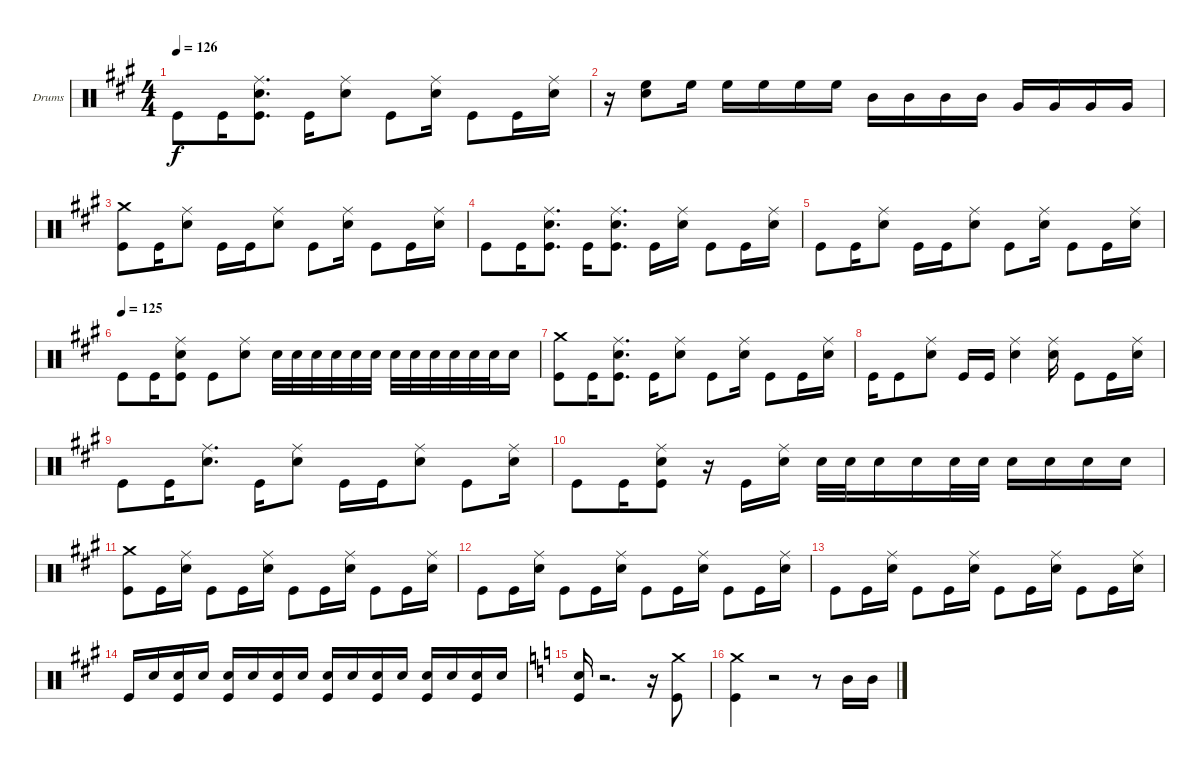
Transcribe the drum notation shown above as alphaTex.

\bracketExtendMode groupsimilarinstruments
\firstSystemTrackNameOrientation horizontal
\otherSystemsTrackNameOrientation horizontal
\track ("Vinny Appice" "Drums") {instrument percussion}
\staff {score}
\articulation defaults
\ts (4 4)
\tempo 126
\clef neutral
\ks f#minor "Kick (hit)".8{dy f} "Kick (hit)".16
("Kick (hit)" "Snare (hit) 2" "Ride (middle)").8{d} "Kick (hit)".16 ("Ride (middle)" "Snare (hit) 2").8 "Kick (hit)".8 ("Ride (middle)" "Snare (hit) 2").16 "Kick (hit)".8 "Kick (hit)".16 ("Snare (hit) 2" "Ride (middle)").16 |
r.16 ("High Floor Tom (hit)" "Snare (hit) 2").8 "High Floor Tom (hit)".16 "High Floor Tom (hit)".16 "High Floor Tom (hit)".16 "High Floor Tom (hit)".16 "High Floor Tom (hit)".16 "Mid Tom (hit)".16 "Mid Tom (hit)".16 "Mid Tom (hit)".16 "Mid Tom (hit)".16 "Very Low Tom (hit)".16 "Very Low Tom (hit)".16 "Very Low Tom (hit)".16 "Very Low Tom (hit)".16 |
("Crash medium (hit)" "Kick (hit)").8 "Kick (hit)".16 ("Ride (middle)" "Snare (hit) 2").8 "Kick (hit)".16 "Kick (hit)".16 ("Ride (middle)" "Snare (hit) 2").8 "Kick (hit)".8 ("Ride (middle)" "Snare (hit) 2").16 "Kick (hit)".8 "Kick (hit)".16 ("Ride (middle)" "Snare (hit) 2").16 |
"Kick (hit)".8 "Kick (hit)".16 ("Kick (hit)" "Snare (hit) 2" "Ride (middle)").8{d} "Kick (hit)".16 ("Snare (hit) 2" "Ride (middle)" "Kick (hit)").8{d} "Kick (hit)".16 ("Snare (hit) 2" "Ride (middle)").16 "Kick (hit)".8 "Kick (hit)".16 ("Ride (middle)" "Snare (hit) 2").16 |
"Kick (hit)".8 "Kick (hit)".16 ("Ride (middle)" "Snare (hit) 2").8 "Kick (hit)".16 "Kick (hit)".16 ("Ride (middle)" "Snare (hit) 2").8 "Kick (hit)".8 ("Ride (middle)" "Snare (hit) 2").16 "Kick (hit)".8 "Kick (hit)".16 ("Ride (middle)" "Snare (hit) 2").16 |
\tempo (125)
"Kick (hit)".8 "Kick (hit)".16 ("Ride (middle)" "Snare (hit) 2" "Kick (hit)").8 "Kick (hit)".8 ("Snare (hit) 2" "Ride (middle)").8 "Snare (hit) 2".32 "Snare (hit) 2".32 "Snare (hit) 2".32 "Snare (hit) 2".32 "Snare (hit) 2".32 "Snare (hit) 2".32 "Snare (hit) 2".32 "Snare (hit) 2".32 "Snare (hit) 2".32 "Snare (hit) 2".32 "Snare (hit) 2".32 "Snare (hit) 2".32 "Snare (hit) 2".16 |
("Crash medium (hit)" "Kick (hit)").8 "Kick (hit)".16 ("Kick (hit)" "Snare (hit) 2" "Ride (middle)").8{d} "Kick (hit)".16 ("Ride (middle)" "Snare (hit) 2").8 "Kick (hit)".8 ("Ride (middle)" "Snare (hit) 2").16 "Kick (hit)".8 "Kick (hit)".16 ("Ride (middle)" "Snare (hit) 2").16 |
"Kick (hit)".16 "Kick (hit)".8 ("Ride (middle)" "Snare (hit) 2").8 "Kick (hit)".16 "Kick (hit)".16 ("Snare (hit) 2" "Ride (middle)").4 ("Snare (hit) 2" "Ride (middle)").16 "Kick (hit)".8 "Kick (hit)".16 ("Ride (middle)" "Snare (hit) 2").16 |
"Kick (hit)".8 "Kick (hit)".16 ("Snare (hit) 2" "Ride (middle)").8{d} "Kick (hit)".16 ("Ride (middle)" "Snare (hit) 2").8 "Kick (hit)".16 "Kick (hit)".16 ("Ride (middle)" "Snare (hit) 2").8 "Kick (hit)".8 ("Ride (middle)" "Snare (hit) 2").16 |
"Kick (hit)".8 "Kick (hit)".16 ("Ride (middle)" "Snare (hit) 2" "Kick (hit)").8 r.16 "Kick (hit)".16 ("Snare (hit) 2" "Ride (middle)").16 "Snare (hit) 2".32 "Snare (hit) 2".32 "Snare (hit) 2".16 "Snare (hit) 2".16 "Snare (hit) 2".32 "Snare (hit) 2".32 "Snare (hit) 2".16 "Snare (hit) 2".16 "Snare (hit) 2".16 "Snare (hit) 2".16 |
("Crash medium (hit)" "Kick (hit)").8 "Kick (hit)".16 ("Snare (hit) 2" "Ride (middle)").16 "Kick (hit)".8 "Kick (hit)".16 ("Snare (hit) 2" "Ride (middle)").16 "Kick (hit)".8 "Kick (hit)".16 ("Ride (middle)" "Snare (hit) 2").16 "Kick (hit)".8 "Kick (hit)".16 ("Ride (middle)" "Snare (hit) 2").16 |
"Kick (hit)".8 "Kick (hit)".16 ("Snare (hit) 2" "Ride (middle)").16 "Kick (hit)".8 "Kick (hit)".16 ("Snare (hit) 2" "Ride (middle)").16 "Kick (hit)".8 "Kick (hit)".16 ("Snare (hit) 2" "Ride (middle)").16 "Kick (hit)".8 "Kick (hit)".16 ("Ride (middle)" "Snare (hit) 2").16 |
"Kick (hit)".8 "Kick (hit)".16 ("Snare (hit) 2" "Ride (middle)").16 "Kick (hit)".8 "Kick (hit)".16 ("Ride (middle)" "Snare (hit) 2").16 "Kick (hit)".8 "Kick (hit)".16 ("Ride (middle)" "Snare (hit) 2").16 "Kick (hit)".8 "Kick (hit)".16 ("Ride (middle)" "Snare (hit) 2").16 |
"Kick (hit)".16 "Snare (hit) 2".16 ("Snare (hit) 2" "Kick (hit)").16 "Snare (hit) 2".16 ("Snare (hit) 2" "Kick (hit)").16 "Snare (hit) 2".16 ("Snare (hit) 2" "Kick (hit)").16 "Snare (hit) 2".16 ("Snare (hit) 2" "Kick (hit)").16 "Snare (hit) 2".16 ("Snare (hit) 2" "Kick (hit)").16 "Snare (hit) 2".16 ("Snare (hit) 2" "Kick (hit)").16 "Snare (hit) 2".16 ("Snare (hit) 2" "Kick (hit)").16 "Snare (hit) 2".16 |
\ks aminor
("Kick (hit)" "Snare (hit) 2").16 r.2{d} r.16 ("Kick (hit)" "Crash medium (hit)").8 |
("Kick (hit)" "Crash medium (hit)").4 r.2 r.8 "Mid Tom (hit)".16 "Mid Tom (hit)".16
